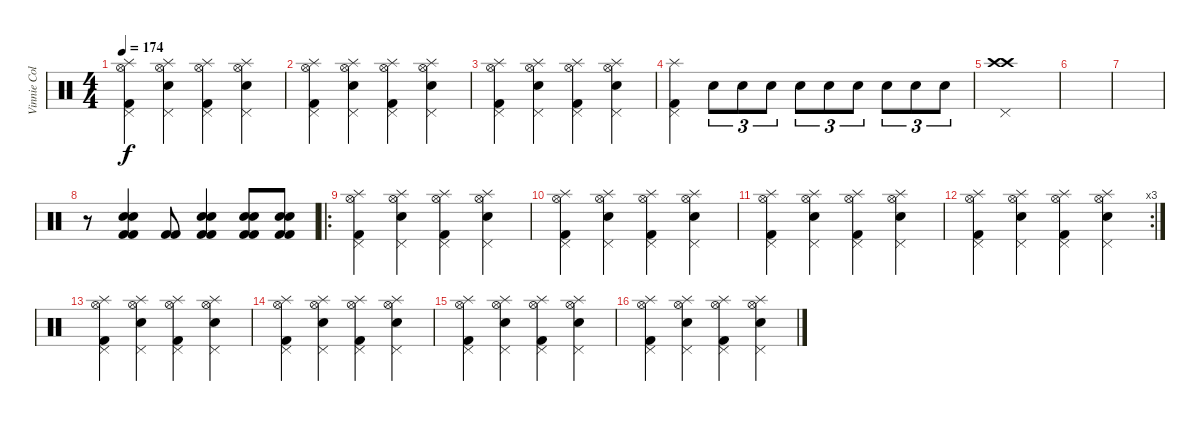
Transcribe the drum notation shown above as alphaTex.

\track ("Vinnie Colaiuta" "Vinnie Col") {instrument percussion}
\staff {score}
\articulation defaults
\ts (4 4)
\tempo 174
\clef neutral
\ks c
("Splash (hit)" "Kick (hit) 2" "Pedal Hi-Hat (hit)" "Hi-Hat (open)").4{dy f} ("Splash (hit)" "Snare (hit) 2" "Pedal Hi-Hat (hit)" "Hi-Hat (open)").4 ("Splash (hit)" "Kick (hit) 2" "Pedal Hi-Hat (hit)" "Hi-Hat (open)").4 ("Splash (hit)" "Snare (hit) 2" "Pedal Hi-Hat (hit)" "Hi-Hat (open)").4 |
("Splash (hit)" "Kick (hit) 2" "Pedal Hi-Hat (hit)" "Hi-Hat (open)").4 ("Splash (hit)" "Snare (hit) 2" "Pedal Hi-Hat (hit)" "Hi-Hat (open)").4 ("Splash (hit)" "Kick (hit) 2" "Pedal Hi-Hat (hit)" "Hi-Hat (open)").4 ("Splash (hit)" "Snare (hit) 2" "Pedal Hi-Hat (hit)" "Hi-Hat (open)").4 |
("Splash (hit)" "Kick (hit) 2" "Pedal Hi-Hat (hit)" "Hi-Hat (open)").4 ("Splash (hit)" "Snare (hit) 2" "Pedal Hi-Hat (hit)" "Hi-Hat (open)").4 ("Splash (hit)" "Kick (hit) 2" "Pedal Hi-Hat (hit)" "Hi-Hat (open)").4 ("Splash (hit)" "Snare (hit) 2" "Pedal Hi-Hat (hit)" "Hi-Hat (open)").4 |
("Splash (hit)" "Kick (hit) 2" "Pedal Hi-Hat (hit)").4 "Electric Snare (hit)".8{tu (3 2)} "Electric Snare (hit)".8{tu (3 2)} "Electric Snare (hit)".8{tu (3 2)} "Electric Snare (hit)".8{tu (3 2)} "Electric Snare (hit)".8{tu (3 2)} "Electric Snare (hit)".8{tu (3 2)} "Electric Snare (hit)".8{tu (3 2)} "Electric Snare (hit)".8{tu (3 2)} "Electric Snare (hit)".8{tu (3 2)} |
("Crash high (hit)" "Crash high (hit)" "Pedal Hi-Hat (hit)").1 |
|
|
r.8 ("Kick (hit) 2" "Snare (hit) 2" "Snare (hit) 2" "Kick (hit) 2").4 ("Kick (hit) 2" "Kick (hit) 2").8 ("Kick (hit) 2" "Snare (hit) 2" "Snare (hit) 2" "Kick (hit) 2").4 ("Kick (hit) 2" "Kick (hit) 2" "Snare (hit) 2" "Snare (hit) 2").8 ("Kick (hit) 2" "Kick (hit) 2" "Snare (hit) 2" "Snare (hit) 2").8 |
\ro
("Splash (hit)" "Kick (hit) 2" "Pedal Hi-Hat (hit)" "Hi-Hat (open)").4 ("Splash (hit)" "Snare (hit) 2" "Pedal Hi-Hat (hit)" "Hi-Hat (open)").4 ("Splash (hit)" "Kick (hit) 2" "Pedal Hi-Hat (hit)" "Hi-Hat (open)").4 ("Splash (hit)" "Snare (hit) 2" "Pedal Hi-Hat (hit)" "Hi-Hat (open)").4 |
("Splash (hit)" "Kick (hit) 2" "Pedal Hi-Hat (hit)" "Hi-Hat (open)").4 ("Splash (hit)" "Snare (hit) 2" "Pedal Hi-Hat (hit)" "Hi-Hat (open)").4 ("Splash (hit)" "Kick (hit) 2" "Pedal Hi-Hat (hit)" "Hi-Hat (open)").4 ("Splash (hit)" "Snare (hit) 2" "Pedal Hi-Hat (hit)" "Hi-Hat (open)").4 |
("Splash (hit)" "Kick (hit) 2" "Pedal Hi-Hat (hit)" "Hi-Hat (open)").4 ("Splash (hit)" "Snare (hit) 2" "Pedal Hi-Hat (hit)" "Hi-Hat (open)").4 ("Splash (hit)" "Kick (hit) 2" "Pedal Hi-Hat (hit)" "Hi-Hat (open)").4 ("Splash (hit)" "Snare (hit) 2" "Pedal Hi-Hat (hit)" "Hi-Hat (open)").4 |
\rc 3
("Splash (hit)" "Kick (hit) 2" "Pedal Hi-Hat (hit)" "Hi-Hat (open)").4 ("Splash (hit)" "Snare (hit) 2" "Pedal Hi-Hat (hit)" "Hi-Hat (open)").4 ("Splash (hit)" "Kick (hit) 2" "Pedal Hi-Hat (hit)" "Hi-Hat (open)").4 ("Splash (hit)" "Snare (hit) 2" "Pedal Hi-Hat (hit)" "Hi-Hat (open)").4 |
("Splash (hit)" "Kick (hit) 2" "Pedal Hi-Hat (hit)" "Hi-Hat (open)").4 ("Splash (hit)" "Snare (hit) 2" "Pedal Hi-Hat (hit)" "Hi-Hat (open)").4 ("Splash (hit)" "Kick (hit) 2" "Pedal Hi-Hat (hit)" "Hi-Hat (open)").4 ("Splash (hit)" "Snare (hit) 2" "Pedal Hi-Hat (hit)" "Hi-Hat (open)").4 |
("Splash (hit)" "Kick (hit) 2" "Pedal Hi-Hat (hit)" "Hi-Hat (open)").4 ("Splash (hit)" "Snare (hit) 2" "Pedal Hi-Hat (hit)" "Hi-Hat (open)").4 ("Splash (hit)" "Kick (hit) 2" "Pedal Hi-Hat (hit)" "Hi-Hat (open)").4 ("Splash (hit)" "Snare (hit) 2" "Pedal Hi-Hat (hit)" "Hi-Hat (open)").4 |
("Splash (hit)" "Kick (hit) 2" "Pedal Hi-Hat (hit)" "Hi-Hat (open)").4 ("Splash (hit)" "Snare (hit) 2" "Pedal Hi-Hat (hit)" "Hi-Hat (open)").4 ("Splash (hit)" "Kick (hit) 2" "Pedal Hi-Hat (hit)" "Hi-Hat (open)").4 ("Splash (hit)" "Snare (hit) 2" "Pedal Hi-Hat (hit)" "Hi-Hat (open)").4 |
("Splash (hit)" "Kick (hit) 2" "Pedal Hi-Hat (hit)" "Hi-Hat (open)").4 ("Splash (hit)" "Snare (hit) 2" "Pedal Hi-Hat (hit)" "Hi-Hat (open)").4 ("Splash (hit)" "Kick (hit) 2" "Pedal Hi-Hat (hit)" "Hi-Hat (open)").4 ("Splash (hit)" "Snare (hit) 2" "Pedal Hi-Hat (hit)" "Hi-Hat (open)").4
